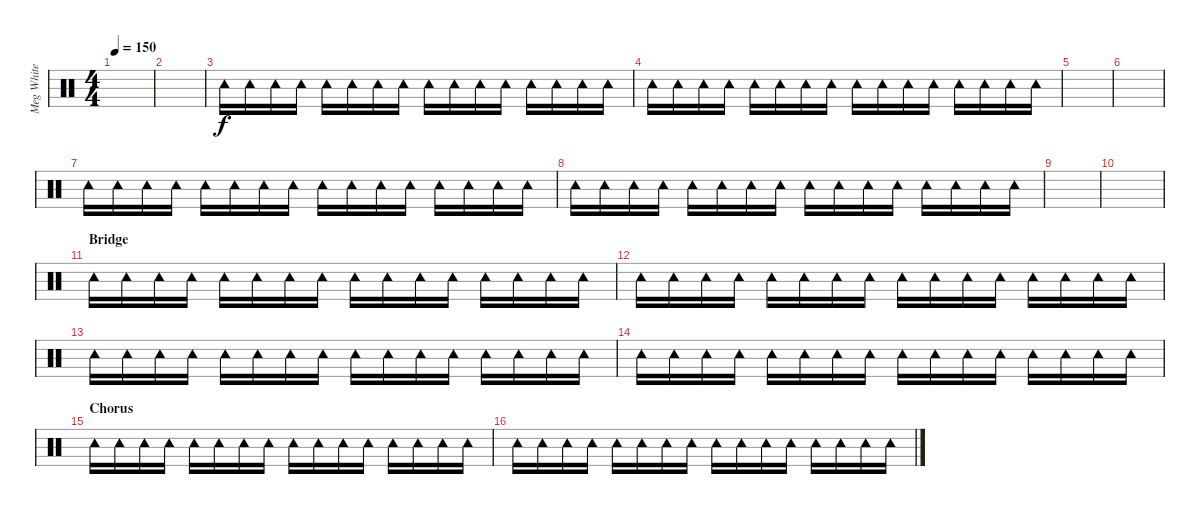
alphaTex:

\track ("Meg White - Tambourine" "Meg White ") {instrument percussion}
\staff {score}
\articulation defaults
\ts (4 4)
\tempo 150
\clef neutral
\ks c
|
|
"Tambourine (hit)".16 "Tambourine (hit)".16 "Tambourine (hit)".16 "Tambourine (hit)".16 "Tambourine (hit)".16 "Tambourine (hit)".16 "Tambourine (hit)".16 "Tambourine (hit)".16 "Tambourine (hit)".16 "Tambourine (hit)".16 "Tambourine (hit)".16 "Tambourine (hit)".16 "Tambourine (hit)".16 "Tambourine (hit)".16 "Tambourine (hit)".16 "Tambourine (hit)".16 |
"Tambourine (hit)".16 "Tambourine (hit)".16 "Tambourine (hit)".16 "Tambourine (hit)".16 "Tambourine (hit)".16 "Tambourine (hit)".16 "Tambourine (hit)".16 "Tambourine (hit)".16 "Tambourine (hit)".16 "Tambourine (hit)".16 "Tambourine (hit)".16 "Tambourine (hit)".16 "Tambourine (hit)".16 "Tambourine (hit)".16 "Tambourine (hit)".16 "Tambourine (hit)".16 |
|
|
"Tambourine (hit)".16 "Tambourine (hit)".16 "Tambourine (hit)".16 "Tambourine (hit)".16 "Tambourine (hit)".16 "Tambourine (hit)".16 "Tambourine (hit)".16 "Tambourine (hit)".16 "Tambourine (hit)".16 "Tambourine (hit)".16 "Tambourine (hit)".16 "Tambourine (hit)".16 "Tambourine (hit)".16 "Tambourine (hit)".16 "Tambourine (hit)".16 "Tambourine (hit)".16 |
"Tambourine (hit)".16 "Tambourine (hit)".16 "Tambourine (hit)".16 "Tambourine (hit)".16 "Tambourine (hit)".16 "Tambourine (hit)".16 "Tambourine (hit)".16 "Tambourine (hit)".16 "Tambourine (hit)".16 "Tambourine (hit)".16 "Tambourine (hit)".16 "Tambourine (hit)".16 "Tambourine (hit)".16 "Tambourine (hit)".16 "Tambourine (hit)".16 "Tambourine (hit)".16 |
|
|
\section ("" "Bridge")
"Tambourine (hit)".16 "Tambourine (hit)".16 "Tambourine (hit)".16 "Tambourine (hit)".16 "Tambourine (hit)".16 "Tambourine (hit)".16 "Tambourine (hit)".16 "Tambourine (hit)".16 "Tambourine (hit)".16 "Tambourine (hit)".16 "Tambourine (hit)".16 "Tambourine (hit)".16 "Tambourine (hit)".16 "Tambourine (hit)".16 "Tambourine (hit)".16 "Tambourine (hit)".16 |
"Tambourine (hit)".16 "Tambourine (hit)".16 "Tambourine (hit)".16 "Tambourine (hit)".16 "Tambourine (hit)".16 "Tambourine (hit)".16 "Tambourine (hit)".16 "Tambourine (hit)".16 "Tambourine (hit)".16 "Tambourine (hit)".16 "Tambourine (hit)".16 "Tambourine (hit)".16 "Tambourine (hit)".16 "Tambourine (hit)".16 "Tambourine (hit)".16 "Tambourine (hit)".16 |
"Tambourine (hit)".16 "Tambourine (hit)".16 "Tambourine (hit)".16 "Tambourine (hit)".16 "Tambourine (hit)".16 "Tambourine (hit)".16 "Tambourine (hit)".16 "Tambourine (hit)".16 "Tambourine (hit)".16 "Tambourine (hit)".16 "Tambourine (hit)".16 "Tambourine (hit)".16 "Tambourine (hit)".16 "Tambourine (hit)".16 "Tambourine (hit)".16 "Tambourine (hit)".16 |
"Tambourine (hit)".16 "Tambourine (hit)".16 "Tambourine (hit)".16 "Tambourine (hit)".16 "Tambourine (hit)".16 "Tambourine (hit)".16 "Tambourine (hit)".16 "Tambourine (hit)".16 "Tambourine (hit)".16 "Tambourine (hit)".16 "Tambourine (hit)".16 "Tambourine (hit)".16 "Tambourine (hit)".16 "Tambourine (hit)".16 "Tambourine (hit)".16 "Tambourine (hit)".16 |
\section ("" "Chorus")
"Tambourine (hit)".16 "Tambourine (hit)".16 "Tambourine (hit)".16 "Tambourine (hit)".16 "Tambourine (hit)".16 "Tambourine (hit)".16 "Tambourine (hit)".16 "Tambourine (hit)".16 "Tambourine (hit)".16 "Tambourine (hit)".16 "Tambourine (hit)".16 "Tambourine (hit)".16 "Tambourine (hit)".16 "Tambourine (hit)".16 "Tambourine (hit)".16 "Tambourine (hit)".16 |
"Tambourine (hit)".16 "Tambourine (hit)".16 "Tambourine (hit)".16 "Tambourine (hit)".16 "Tambourine (hit)".16 "Tambourine (hit)".16 "Tambourine (hit)".16 "Tambourine (hit)".16 "Tambourine (hit)".16 "Tambourine (hit)".16 "Tambourine (hit)".16 "Tambourine (hit)".16 "Tambourine (hit)".16 "Tambourine (hit)".16 "Tambourine (hit)".16 "Tambourine (hit)".16
